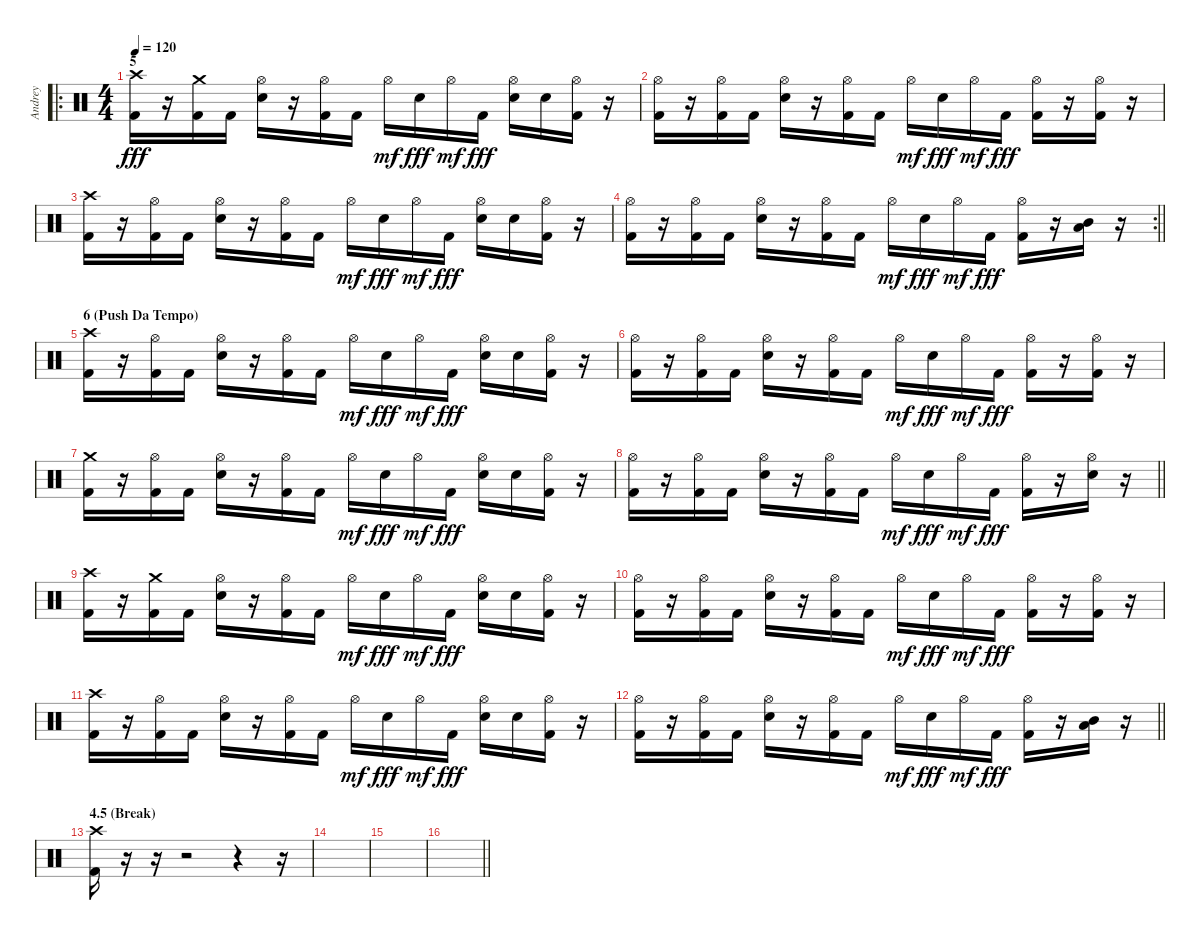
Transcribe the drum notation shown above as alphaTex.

\track ("Andrey" "Andrey") {instrument percussion}
\staff {score}
\articulation defaults
\ro
\ts (4 4)
\section ("" "5")
\tempo 120
\clef neutral
\ks c
("Crash high (hit)" "Kick (hit) 2").16{dy fff volume 16} r.16 ("Crash medium (hit)" "Kick (hit) 2").16 "Kick (hit) 2".16 ("Hi-Hat (open)" "Snare (hit) 2").16 r.16 ("Hi-Hat (open)" "Kick (hit) 2").16 "Kick (hit) 2".16 "Hi-Hat (open)".16{dy mf} "Snare (hit) 2".16{dy fff} "Hi-Hat (open)".16{dy mf} "Kick (hit) 2".16{dy fff} ("Hi-Hat (open)" "Snare (hit) 2").16 "Snare (hit) 2".16 ("Hi-Hat (open)" "Kick (hit) 2").16 r.16 |
("Hi-Hat (open)" "Kick (hit) 2").16 r.16 ("Hi-Hat (open)" "Kick (hit) 2").16 "Kick (hit) 2".16 ("Hi-Hat (open)" "Snare (hit) 2").16 r.16 ("Hi-Hat (open)" "Kick (hit) 2").16 "Kick (hit) 2".16 "Hi-Hat (open)".16{dy mf} "Snare (hit) 2".16{dy fff} "Hi-Hat (open)".16{dy mf} "Kick (hit) 2".16{dy fff} ("Hi-Hat (open)" "Kick (hit) 2").16 r.16 ("Hi-Hat (open)" "Kick (hit) 2").16 r.16 |
("Crash high (hit)" "Kick (hit) 2").16 r.16 ("Hi-Hat (open)" "Kick (hit) 2").16 "Kick (hit) 2".16 ("Hi-Hat (open)" "Snare (hit) 2").16 r.16 ("Hi-Hat (open)" "Kick (hit) 2").16 "Kick (hit) 2".16 "Hi-Hat (open)".16{dy mf} "Snare (hit) 2".16{dy fff} "Hi-Hat (open)".16{dy mf} "Kick (hit) 2".16{dy fff} ("Hi-Hat (open)" "Snare (hit) 2").16 "Snare (hit) 2".16 ("Hi-Hat (open)" "Kick (hit) 2").16 r.16 |
\rc 2
\barLineRight lightlight
("Hi-Hat (open)" "Kick (hit) 2").16 r.16 ("Hi-Hat (open)" "Kick (hit) 2").16 "Kick (hit) 2".16 ("Hi-Hat (open)" "Snare (hit) 2").16 r.16 ("Hi-Hat (open)" "Kick (hit) 2").16 "Kick (hit) 2".16 "Hi-Hat (open)".16{dy mf} "Snare (hit) 2".16{dy fff} "Hi-Hat (open)".16{dy mf} "Kick (hit) 2".16{dy fff} ("Hi-Hat (open)" "Kick (hit) 2").16 r.16 ("Low Tom (hit)" "Mid Tom (hit)").16 r.16 |
\section ("" "6 (Push Da Tempo)")
("Crash high (hit)" "Kick (hit) 2").16 r.16 ("Hi-Hat (open)" "Kick (hit) 2").16 "Kick (hit) 2".16 ("Hi-Hat (open)" "Snare (hit) 2").16 r.16 ("Hi-Hat (open)" "Kick (hit) 2").16 "Kick (hit) 2".16 "Hi-Hat (open)".16{dy mf} "Snare (hit) 2".16{dy fff} "Hi-Hat (open)".16{dy mf} "Kick (hit) 2".16{dy fff} ("Hi-Hat (open)" "Snare (hit) 2").16 "Snare (hit) 2".16 ("Hi-Hat (open)" "Kick (hit) 2").16 r.16 |
("Hi-Hat (open)" "Kick (hit) 2").16 r.16 ("Hi-Hat (open)" "Kick (hit) 2").16 "Kick (hit) 2".16 ("Hi-Hat (open)" "Snare (hit) 2").16 r.16 ("Hi-Hat (open)" "Kick (hit) 2").16 "Kick (hit) 2".16 "Hi-Hat (open)".16{dy mf} "Snare (hit) 2".16{dy fff} "Hi-Hat (open)".16{dy mf} "Kick (hit) 2".16{dy fff} ("Hi-Hat (open)" "Kick (hit) 2").16 r.16 ("Hi-Hat (open)" "Kick (hit) 2").16 r.16 |
("Crash medium (hit)" "Kick (hit) 2").16 r.16 ("Hi-Hat (open)" "Kick (hit) 2").16 "Kick (hit) 2".16 ("Hi-Hat (open)" "Snare (hit) 2").16 r.16 ("Hi-Hat (open)" "Kick (hit) 2").16 "Kick (hit) 2".16 "Hi-Hat (open)".16{dy mf} "Snare (hit) 2".16{dy fff} "Hi-Hat (open)".16{dy mf} "Kick (hit) 2".16{dy fff} ("Hi-Hat (open)" "Snare (hit) 2").16 "Snare (hit) 2".16 ("Hi-Hat (open)" "Kick (hit) 2").16 r.16 |
\barLineRight lightlight
("Hi-Hat (open)" "Kick (hit) 2").16 r.16 ("Hi-Hat (open)" "Kick (hit) 2").16 "Kick (hit) 2".16 ("Hi-Hat (open)" "Snare (hit) 2").16 r.16 ("Hi-Hat (open)" "Kick (hit) 2").16 "Kick (hit) 2".16 "Hi-Hat (open)".16{dy mf} "Snare (hit) 2".16{dy fff} "Hi-Hat (open)".16{dy mf} "Kick (hit) 2".16{dy fff} ("Hi-Hat (open)" "Kick (hit) 2").16 r.16 ("Hi-Hat (open)" "Snare (hit) 2").16 r.16 |
("Crash high (hit)" "Kick (hit) 2").16 r.16 ("Crash medium (hit)" "Kick (hit) 2").16 "Kick (hit) 2".16 ("Hi-Hat (open)" "Snare (hit) 2").16 r.16 ("Hi-Hat (open)" "Kick (hit) 2").16 "Kick (hit) 2".16 "Hi-Hat (open)".16{dy mf} "Snare (hit) 2".16{dy fff} "Hi-Hat (open)".16{dy mf} "Kick (hit) 2".16{dy fff} ("Hi-Hat (open)" "Snare (hit) 2").16 "Snare (hit) 2".16 ("Hi-Hat (open)" "Kick (hit) 2").16 r.16 |
("Hi-Hat (open)" "Kick (hit) 2").16 r.16 ("Hi-Hat (open)" "Kick (hit) 2").16 "Kick (hit) 2".16 ("Hi-Hat (open)" "Snare (hit) 2").16 r.16 ("Hi-Hat (open)" "Kick (hit) 2").16 "Kick (hit) 2".16 "Hi-Hat (open)".16{dy mf} "Snare (hit) 2".16{dy fff} "Hi-Hat (open)".16{dy mf} "Kick (hit) 2".16{dy fff} ("Hi-Hat (open)" "Kick (hit) 2").16 r.16 ("Hi-Hat (open)" "Kick (hit) 2").16 r.16 |
("Crash high (hit)" "Kick (hit) 2").16 r.16 ("Hi-Hat (open)" "Kick (hit) 2").16 "Kick (hit) 2".16 ("Hi-Hat (open)" "Snare (hit) 2").16 r.16 ("Hi-Hat (open)" "Kick (hit) 2").16 "Kick (hit) 2".16 "Hi-Hat (open)".16{dy mf} "Snare (hit) 2".16{dy fff} "Hi-Hat (open)".16{dy mf} "Kick (hit) 2".16{dy fff} ("Hi-Hat (open)" "Snare (hit) 2").16 "Snare (hit) 2".16 ("Hi-Hat (open)" "Kick (hit) 2").16 r.16 |
\barLineRight lightlight
("Hi-Hat (open)" "Kick (hit) 2").16 r.16 ("Hi-Hat (open)" "Kick (hit) 2").16 "Kick (hit) 2".16 ("Hi-Hat (open)" "Snare (hit) 2").16 r.16 ("Hi-Hat (open)" "Kick (hit) 2").16 "Kick (hit) 2".16 "Hi-Hat (open)".16{dy mf} "Snare (hit) 2".16{dy fff} "Hi-Hat (open)".16{dy mf} "Kick (hit) 2".16{dy fff} ("Hi-Hat (open)" "Kick (hit) 2").16 r.16 ("Low Tom (hit)" "Mid Tom (hit)").16 r.16 |
\section ("" "4.5 (Break)")
("Crash high (hit)" "Kick (hit) 2").16 r.16{volume 0} r.16 r.2 r.4 r.16 |
|
|
\barLineRight lightlight
